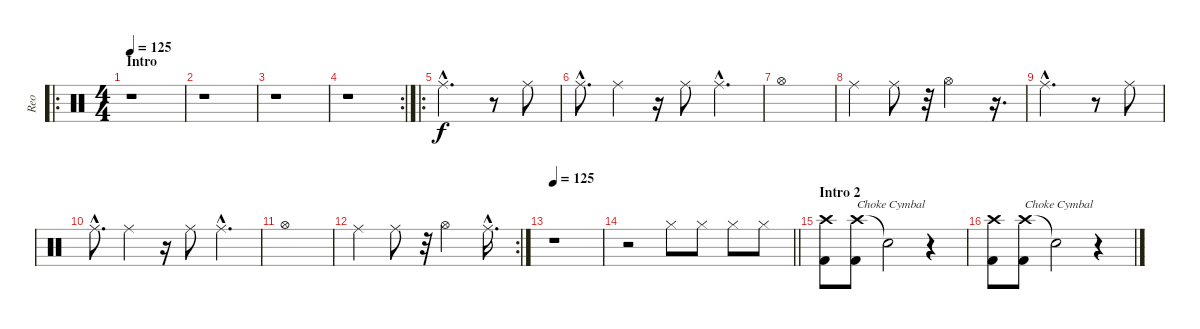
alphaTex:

\track ("Reo" "Reo") {instrument percussion}
\staff {score}
\articulation defaults
\ro
\ts (4 4)
\section ("" "Intro")
\tempo 125
\tempo 156
\tempo 125
\clef neutral
\ks c
r.1{dy f} |
r.1 |
r.1 |
\rc 2
r.1 |
\ro "Ride (middle)"{hac}.2{d}
r.8 "Ride (middle)".8 |
"Ride (middle)"{hac}.8{d} "Ride (middle)".4 r.16 "Ride (middle)".8 "Ride (middle)"{hac}.4{d} |
"Hi-Hat (open)".1 |
"Ride (middle)".4 "Ride (middle)".8 r.32 "Hi-Hat (open)".2 r.16{d} |
"Ride (middle)"{hac}.2{d} r.8 "Ride (middle)".8 |
"Ride (middle)"{hac}.8{d} "Ride (middle)".4 r.16 "Ride (middle)".8 "Ride (middle)"{hac}.4{d} |
"Hi-Hat (open)".1 |
\rc 2 "Ride (middle)".4 "Ride (middle)".8
r.32 "Hi-Hat (open)".2 "Ride (middle)"{hac}.16{d} |
\tempo 125
r.1 |
\barLineRight lightlight
r.2 "Hi-Hat (closed)".8 "Hi-Hat (closed)".8 "Hi-Hat (closed)".8 "Hi-Hat (closed)".8 |
\section ("" "Intro 2")
("Crash high (hit)" "Kick (hit) 2").8 ("Crash high (hit)" "Kick (hit) 2").8{txt "Choke Cymbal"} "Snare (hit)"{t}.2{volume 0} r.4 |
("Crash high (hit)" "Kick (hit) 2").8{volume 13} ("Crash high (hit)" "Kick (hit) 2").8{txt "Choke Cymbal"} "Snare (hit)"{t}.2{volume 0} r.4
